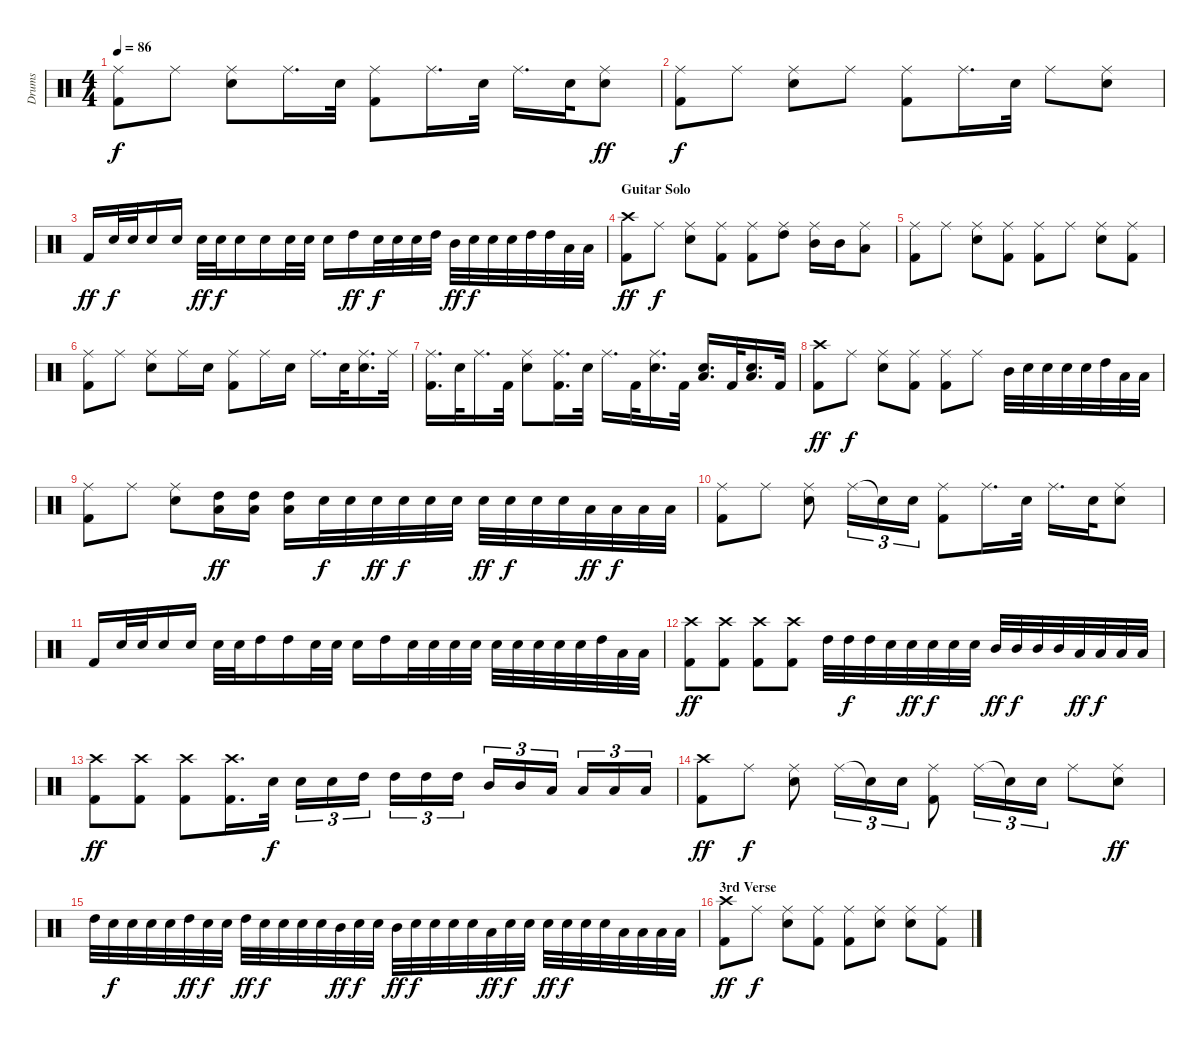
\track ("Drums" "Drums") {instrument percussion}
\staff {score}
\articulation defaults
\ts (4 4)
\tempo 86
\clef neutral
\ks c
("Ride (middle)" "Kick (hit) 2").8{dy f} "Ride (middle)".8 ("Ride (middle)" "Electric Snare (hit)").8 "Ride (middle)".16{d} "Electric Snare (hit)".32 ("Ride (middle)" "Kick (hit) 2").8 "Ride (middle)".16{d} "Electric Snare (hit)".32 "Ride (middle)".16{d} "Electric Snare (hit)".32 ("Ride (middle)" "Electric Snare (hit)").8{dy ff} |
("Ride (middle)" "Kick (hit) 2").8{dy f} "Ride (middle)".8 ("Ride (middle)" "Electric Snare (hit)").8 "Ride (middle)".8 ("Ride (middle)" "Kick (hit) 2").8 "Ride (middle)".16{d} "Electric Snare (hit)".32 "Ride (middle)".8 ("Ride (middle)" "Electric Snare (hit)").8 |
"Kick (hit) 2".16{dy ff} "Electric Snare (hit)".32{dy f} "Electric Snare (hit)".32 "Electric Snare (hit)".16 "Electric Snare (hit)".16 "Electric Snare (hit)".32{dy ff} "Electric Snare (hit)".32{dy f} "Electric Snare (hit)".16 "Electric Snare (hit)".16 "Electric Snare (hit)".32 "Electric Snare (hit)".32 "Electric Snare (hit)".16 "High Tom (hit)".16{dy ff} "Electric Snare (hit)".32{dy f} "Electric Snare (hit)".32 "Electric Snare (hit)".32 "High Tom (hit)".32 "Mid Tom (hit)".32{dy ff} "Electric Snare (hit)".32{dy f} "Electric Snare (hit)".32 "Electric Snare (hit)".32 "High Tom (hit)".32 "High Tom (hit)".32 "Low Tom (hit)".32 "Low Tom (hit)".32 |
\section ("" "Guitar Solo")
("Crash high (hit)" "Kick (hit) 2").8{dy ff} "Ride (middle)".8{dy f} ("Ride (middle)" "Electric Snare (hit)").8 ("Ride (middle)" "Kick (hit) 2").8 ("Ride (middle)" "Kick (hit) 2").8 ("Ride (middle)" "High Tom (hit)").8 ("Ride (middle)" "Mid Tom (hit)").16 "Mid Tom (hit)".16 ("Ride (middle)" "Low Tom (hit)").8 |
("Ride (middle)" "Kick (hit) 2").8 "Ride (middle)".8 ("Ride (middle)" "Electric Snare (hit)").8 ("Ride (middle)" "Kick (hit) 2").8 ("Ride (middle)" "Kick (hit) 2").8 "Ride (middle)".8 ("Ride (middle)" "Electric Snare (hit)").8 ("Ride (middle)" "Kick (hit) 2").8 |
("Ride (middle)" "Kick (hit) 2").8 "Ride (middle)".8 ("Ride (middle)" "Electric Snare (hit)").8 "Ride (middle)".16 "Electric Snare (hit)".16 ("Ride (middle)" "Kick (hit) 2").8 "Ride (middle)".16 "Electric Snare (hit)".16 "Ride (middle)".16{d} "Electric Snare (hit)".32 ("Ride (middle)" "Electric Snare (hit)").16{d} "Ride (middle)".32 |
("Ride (middle)" "Kick (hit) 2").16{d} "Electric Snare (hit)".32 "Ride (middle)".16{d} "Kick (hit) 2".32 ("Ride (middle)" "Electric Snare (hit)").8 ("Ride (middle)" "Kick (hit) 2").16{d} "Electric Snare (hit)".32 "Ride (middle)".16{d} "Kick (hit) 2".32 ("Ride (middle)" "Electric Snare (hit)").16{d} "Kick (hit) 2".32 ("Low Tom (hit)" "Electric Snare (hit)").16{d} "Kick (hit) 2".32 ("Low Tom (hit)" "Electric Snare (hit)").16{d} "Kick (hit) 2".32 |
("Crash high (hit)" "Kick (hit) 2").8{dy ff} "Ride (middle)".8{dy f} ("Ride (middle)" "Electric Snare (hit)").8 ("Ride (middle)" "Kick (hit) 2").8 ("Ride (middle)" "Kick (hit) 2").8 "Ride (middle)".8 "Mid Tom (hit)".32 "Electric Snare (hit)".32 "Electric Snare (hit)".32 "Electric Snare (hit)".32 "Electric Snare (hit)".32 "High Tom (hit)".32 "Low Tom (hit)".32 "Low Tom (hit)".32 |
("Ride (middle)" "Kick (hit) 2").8 "Ride (middle)".8 ("Ride (middle)" "Electric Snare (hit)").8 ("High Tom (hit)" "Low Tom (hit)").16{dy ff} ("High Tom (hit)" "Low Tom (hit)").16 ("High Tom (hit)" "Low Tom (hit)").16 "Electric Snare (hit)".32{dy f} "Electric Snare (hit)".32 "Electric Snare (hit)".32{dy ff} "Electric Snare (hit)".32{dy f} "Electric Snare (hit)".32 "Electric Snare (hit)".32 "Electric Snare (hit)".32{dy ff} "Electric Snare (hit)".32{dy f} "Electric Snare (hit)".32 "Electric Snare (hit)".32 "Low Tom (hit)".32{dy ff} "Low Tom (hit)".32{dy f} "Low Tom (hit)".32 "Low Tom (hit)".32 |
("Ride (middle)" "Kick (hit) 2").8 "Ride (middle)".8 ("Ride (middle)" "Electric Snare (hit)").8 "Ride (middle)".16{tu (3 2)} "Snare (hit)"{t}.16{tu (3 2)} "Electric Snare (hit)".16{tu (3 2)} ("Ride (middle)" "Kick (hit) 2").8 "Ride (middle)".16{d} "Electric Snare (hit)".32 "Ride (middle)".16{d} "Electric Snare (hit)".32 ("Ride (middle)" "Electric Snare (hit)").8 |
"Kick (hit) 2".16 "Electric Snare (hit)".32 "Electric Snare (hit)".32 "Electric Snare (hit)".16 "Electric Snare (hit)".16 "Electric Snare (hit)".32 "Electric Snare (hit)".32 "High Tom (hit)".16 "High Tom (hit)".16 "Electric Snare (hit)".32 "Electric Snare (hit)".32 "Electric Snare (hit)".16 "High Tom (hit)".16 "Electric Snare (hit)".32 "Electric Snare (hit)".32 "Electric Snare (hit)".32 "Electric Snare (hit)".32 "Electric Snare (hit)".32 "Electric Snare (hit)".32 "Electric Snare (hit)".32 "Electric Snare (hit)".32 "Electric Snare (hit)".32 "High Tom (hit)".32 "Low Tom (hit)".32 "Low Tom (hit)".32 |
("Crash high (hit)" "Kick (hit) 2").8{dy ff} ("Crash high (hit)" "Kick (hit) 2").8 ("Crash high (hit)" "Kick (hit) 2").8 ("Crash high (hit)" "Kick (hit) 2").8 "High Tom (hit)".32 "High Tom (hit)".32{dy f} "High Tom (hit)".32 "Electric Snare (hit)".32 "Electric Snare (hit)".32{dy ff} "Electric Snare (hit)".32{dy f} "Electric Snare (hit)".32 "Electric Snare (hit)".32 "Mid Tom (hit)".32{dy ff} "Mid Tom (hit)".32{dy f} "Mid Tom (hit)".32 "Mid Tom (hit)".32 "Low Tom (hit)".32{dy ff} "Low Tom (hit)".32{dy f} "Low Tom (hit)".32 "Low Tom (hit)".32 |
("Crash high (hit)" "Kick (hit) 2").8{dy ff} ("Crash high (hit)" "Kick (hit) 2").8 ("Crash high (hit)" "Kick (hit) 2").8 ("Crash high (hit)" "Kick (hit) 2").16{d} "Electric Snare (hit)".32{dy f} "Electric Snare (hit)".16{tu (3 2)} "Electric Snare (hit)".16{tu (3 2)} "High Tom (hit)".16{tu (3 2)} "High Tom (hit)".16{tu (3 2)} "High Tom (hit)".16{tu (3 2)} "High Tom (hit)".16{tu (3 2)} "Mid Tom (hit)".16{tu (3 2)} "Mid Tom (hit)".16{tu (3 2)} "Low Tom (hit)".16{tu (3 2)} "Low Tom (hit)".16{tu (3 2)} "Low Tom (hit)".16{tu (3 2)} "Low Tom (hit)".16{tu (3 2)} |
("Crash high (hit)" "Kick (hit) 2").8{dy ff} "Ride (middle)".8{dy f} ("Ride (middle)" "Electric Snare (hit)").8 "Ride (middle)".16{tu (3 2)} "Snare (hit)"{t}.16{tu (3 2)} "Electric Snare (hit)".16{tu (3 2)} ("Ride (middle)" "Kick (hit) 2").8 "Ride (middle)".16{tu (3 2)} "Snare (hit)"{t}.16{tu (3 2)} "Electric Snare (hit)".16{tu (3 2)} "Ride (middle)".8 ("Ride (middle)" "Electric Snare (hit)").8{dy ff} |
"High Tom (hit)".32 "Electric Snare (hit)".32{dy f} "Electric Snare (hit)".32 "Electric Snare (hit)".32 "Electric Snare (hit)".32 "High Tom (hit)".32{dy ff} "Electric Snare (hit)".32{dy f} "Electric Snare (hit)".32 "High Tom (hit)".32{dy ff} "Electric Snare (hit)".32{dy f} "Electric Snare (hit)".32 "Electric Snare (hit)".32 "Electric Snare (hit)".32 "Mid Tom (hit)".32{dy ff} "Electric Snare (hit)".32{dy f} "Electric Snare (hit)".32 "Mid Tom (hit)".32{dy ff} "Electric Snare (hit)".32{dy f} "Electric Snare (hit)".32 "Electric Snare (hit)".32 "Electric Snare (hit)".32 "Low Tom (hit)".32{dy ff} "Electric Snare (hit)".32{dy f} "Electric Snare (hit)".32 "Electric Snare (hit)".32{dy ff} "Electric Snare (hit)".32{dy f} "Electric Snare (hit)".32 "Electric Snare (hit)".32 "Low Tom (hit)".32 "Low Tom (hit)".32 "Low Tom (hit)".32 "Low Tom (hit)".32 |
\section ("" "3rd Verse")
("Crash high (hit)" "Kick (hit) 2").8{dy ff} "Ride (middle)".8{dy f} ("Ride (middle)" "Electric Snare (hit)").8 ("Ride (middle)" "Kick (hit) 2").8 ("Ride (middle)" "Kick (hit) 2").8 ("Ride (middle)" "Electric Snare (hit)").8 ("Ride (middle)" "Electric Snare (hit)").8 ("Ride (middle)" "Kick (hit) 2").8
